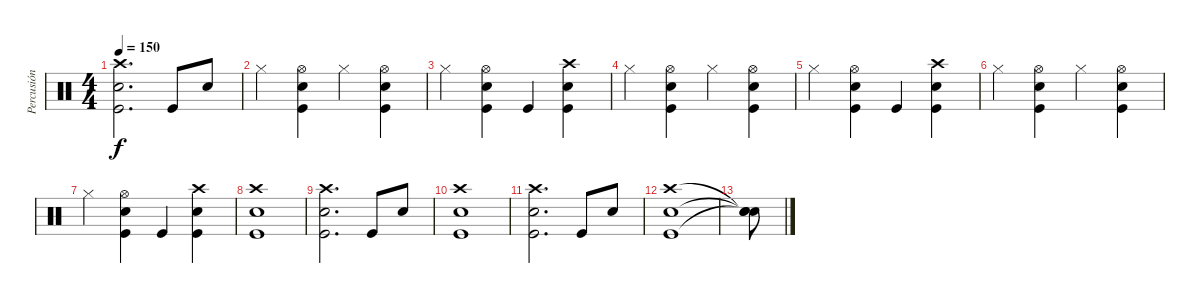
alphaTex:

\track ("Percusión" "Percusión") {instrument percussion}
\staff {score}
\articulation defaults
\ts (4 4)
\tempo 150
\clef neutral
\ks c
("Kick (hit)" "Snare (hit) 2" "Crash high (hit)").2{d dy f} "Kick (hit)".8 "Snare (hit) 2".8 |
"Hi-Hat (closed)".4 ("Kick (hit)" "Snare (hit) 2" "Hi-Hat (open)").4 "Hi-Hat (closed)".4 ("Kick (hit)" "Snare (hit) 2" "Hi-Hat (open)").4 |
"Hi-Hat (closed)".4 ("Kick (hit)" "Snare (hit) 2" "Hi-Hat (open)").4 "Kick (hit)".4 ("Kick (hit)" "Snare (hit) 2" "Crash high (hit)").4 |
"Hi-Hat (closed)".4 ("Kick (hit)" "Snare (hit) 2" "Hi-Hat (open)").4 "Hi-Hat (closed)".4 ("Kick (hit)" "Snare (hit) 2" "Hi-Hat (open)").4 |
"Hi-Hat (closed)".4 ("Kick (hit)" "Snare (hit) 2" "Hi-Hat (open)").4 "Kick (hit)".4 ("Kick (hit)" "Snare (hit) 2" "Crash high (hit)").4 |
"Hi-Hat (closed)".4 ("Kick (hit)" "Snare (hit) 2" "Hi-Hat (open)").4 "Hi-Hat (closed)".4 ("Kick (hit)" "Snare (hit) 2" "Hi-Hat (open)").4 |
"Hi-Hat (closed)".4 ("Kick (hit)" "Snare (hit) 2" "Hi-Hat (open)").4 "Kick (hit)".4 ("Kick (hit)" "Snare (hit) 2" "Crash high (hit)").4 |
("Kick (hit)" "Snare (hit) 2" "Crash high (hit)").1 |
("Kick (hit)" "Snare (hit) 2" "Crash high (hit)").2{d} "Kick (hit)".8 "Snare (hit) 2".8 |
("Kick (hit)" "Snare (hit) 2" "Crash high (hit)").1 |
("Kick (hit)" "Snare (hit) 2" "Crash high (hit)").2{d} "Kick (hit)".8 "Snare (hit) 2".8 |
("Kick (hit)" "Snare (hit) 2" "Crash high (hit)").1 |
("Snare (hit)"{t} "Snare (hit)"{t} "Snare (hit)"{t}).8
